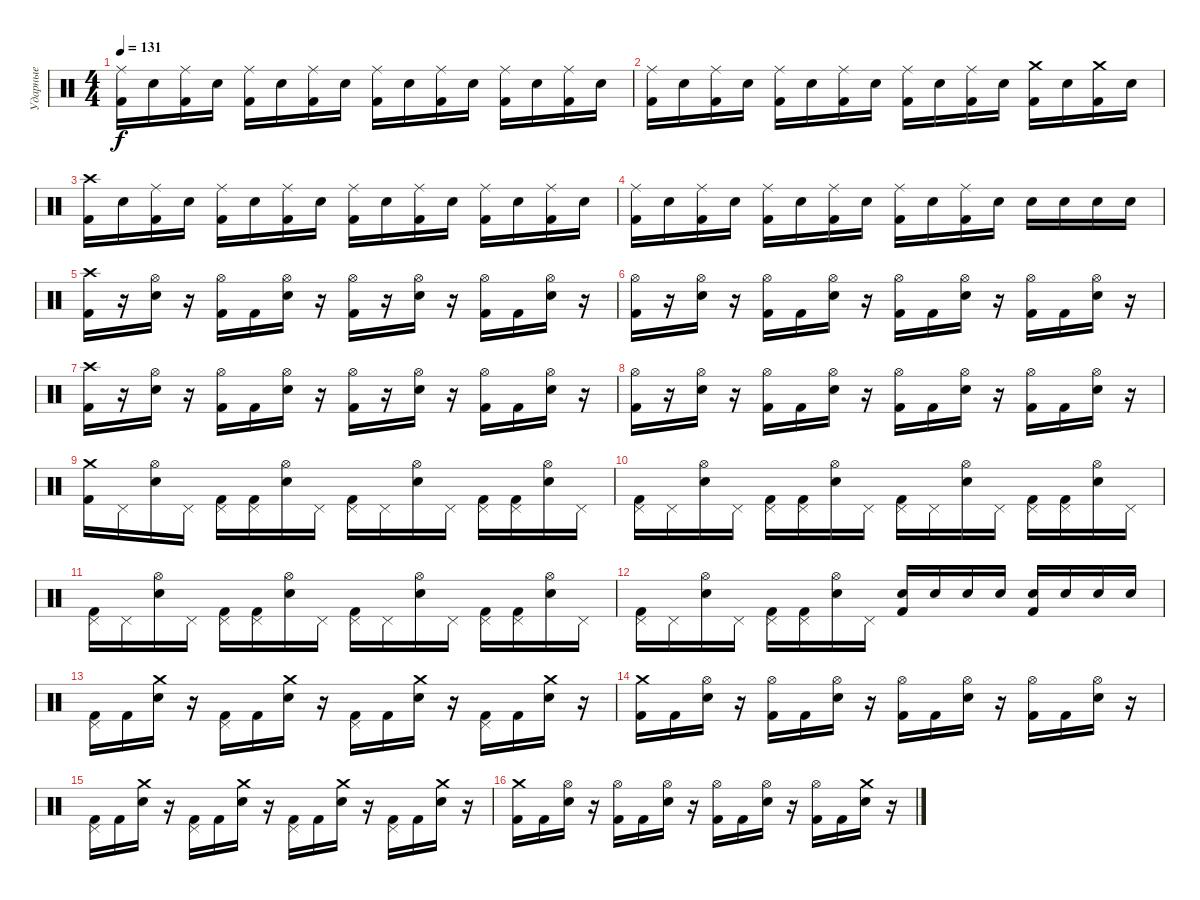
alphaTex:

\track ("Ударные" "Ударные") {instrument percussion}
\staff {score}
\articulation defaults
\ts (4 4)
\tempo 131
\clef neutral
\ks c
("Ride (middle)" "Kick (hit) 2").16{dy f} "Electric Snare (hit)".16 ("Ride (middle)" "Kick (hit) 2").16 "Electric Snare (hit)".16 ("Ride (middle)" "Kick (hit) 2").16 "Electric Snare (hit)".16 ("Ride (middle)" "Kick (hit) 2").16 "Electric Snare (hit)".16 ("Ride (middle)" "Kick (hit) 2").16 "Electric Snare (hit)".16 ("Ride (middle)" "Kick (hit) 2").16 "Electric Snare (hit)".16 ("Ride (middle)" "Kick (hit) 2").16 "Electric Snare (hit)".16 ("Ride (middle)" "Kick (hit) 2").16 "Electric Snare (hit)".16 |
("Ride (middle)" "Kick (hit) 2").16 "Electric Snare (hit)".16 ("Ride (middle)" "Kick (hit) 2").16 "Electric Snare (hit)".16 ("Ride (middle)" "Kick (hit) 2").16 "Electric Snare (hit)".16 ("Ride (middle)" "Kick (hit) 2").16 "Electric Snare (hit)".16 ("Ride (middle)" "Kick (hit) 2").16 "Electric Snare (hit)".16 ("Ride (middle)" "Kick (hit) 2").16 "Electric Snare (hit)".16 ("Crash medium (hit)" "Kick (hit) 2").16 "Electric Snare (hit)".16 ("Crash medium (hit)" "Kick (hit) 2").16 "Electric Snare (hit)".16 |
("Crash high (hit)" "Kick (hit) 2").16 "Electric Snare (hit)".16 ("Ride (middle)" "Kick (hit) 2").16 "Electric Snare (hit)".16 ("Ride (middle)" "Kick (hit) 2").16 "Electric Snare (hit)".16 ("Ride (middle)" "Kick (hit) 2").16 "Electric Snare (hit)".16 ("Ride (middle)" "Kick (hit) 2").16 "Electric Snare (hit)".16 ("Ride (middle)" "Kick (hit) 2").16 "Electric Snare (hit)".16 ("Ride (middle)" "Kick (hit) 2").16 "Electric Snare (hit)".16 ("Ride (middle)" "Kick (hit) 2").16 "Electric Snare (hit)".16 |
("Ride (middle)" "Kick (hit) 2").16 "Electric Snare (hit)".16 ("Ride (middle)" "Kick (hit) 2").16 "Electric Snare (hit)".16 ("Ride (middle)" "Kick (hit) 2").16 "Electric Snare (hit)".16 ("Ride (middle)" "Kick (hit) 2").16 "Electric Snare (hit)".16 ("Ride (middle)" "Kick (hit) 2").16 "Electric Snare (hit)".16 ("Ride (middle)" "Kick (hit) 2").16 "Electric Snare (hit)".16 "Electric Snare (hit)".16 "Electric Snare (hit)".16 "Electric Snare (hit)".16 "Electric Snare (hit)".16 |
("Crash high (hit)" "Kick (hit) 2").16 r.16 ("Hi-Hat (open)" "Electric Snare (hit)").16 r.16 ("Hi-Hat (open)" "Kick (hit) 2").16 "Kick (hit) 2".16 ("Hi-Hat (open)" "Electric Snare (hit)").16 r.16 ("Hi-Hat (open)" "Kick (hit) 2").16 r.16 ("Hi-Hat (open)" "Electric Snare (hit)").16 r.16 ("Hi-Hat (open)" "Kick (hit) 2").16 "Kick (hit) 2".16 ("Hi-Hat (open)" "Electric Snare (hit)").16 r.16 |
("Hi-Hat (open)" "Kick (hit) 2").16 r.16 ("Hi-Hat (open)" "Electric Snare (hit)").16 r.16 ("Hi-Hat (open)" "Kick (hit) 2").16 "Kick (hit) 2".16 ("Hi-Hat (open)" "Electric Snare (hit)").16 r.16 ("Hi-Hat (open)" "Kick (hit) 2").16 "Kick (hit) 2".16 ("Hi-Hat (open)" "Electric Snare (hit)").16 r.16 ("Hi-Hat (open)" "Kick (hit) 2").16 "Kick (hit) 2".16 ("Hi-Hat (open)" "Electric Snare (hit)").16 r.16 |
("Crash high (hit)" "Kick (hit) 2").16 r.16 ("Hi-Hat (open)" "Electric Snare (hit)").16 r.16 ("Hi-Hat (open)" "Kick (hit) 2").16 "Kick (hit) 2".16 ("Hi-Hat (open)" "Electric Snare (hit)").16 r.16 ("Hi-Hat (open)" "Kick (hit) 2").16 r.16 ("Hi-Hat (open)" "Electric Snare (hit)").16 r.16 ("Hi-Hat (open)" "Kick (hit) 2").16 "Kick (hit) 2".16 ("Hi-Hat (open)" "Electric Snare (hit)").16 r.16 |
("Hi-Hat (open)" "Kick (hit) 2").16 r.16 ("Hi-Hat (open)" "Electric Snare (hit)").16 r.16 ("Hi-Hat (open)" "Kick (hit) 2").16 "Kick (hit) 2".16 ("Hi-Hat (open)" "Electric Snare (hit)").16 r.16 ("Hi-Hat (open)" "Kick (hit) 2").16 "Kick (hit) 2".16 ("Hi-Hat (open)" "Electric Snare (hit)").16 r.16 ("Hi-Hat (open)" "Kick (hit) 2").16 "Kick (hit) 2".16 ("Hi-Hat (open)" "Electric Snare (hit)").16 r.16 |
("Crash medium (hit)" "Kick (hit) 2").16 "Pedal Hi-Hat (hit)".16 ("Hi-Hat (open)" "Electric Snare (hit)").16 "Pedal Hi-Hat (hit)".16 ("Pedal Hi-Hat (hit)" "Kick (hit) 2").16 ("Pedal Hi-Hat (hit)" "Kick (hit) 2").16 ("Hi-Hat (open)" "Electric Snare (hit)").16 "Pedal Hi-Hat (hit)".16 ("Pedal Hi-Hat (hit)" "Kick (hit) 2").16 "Pedal Hi-Hat (hit)".16 ("Hi-Hat (open)" "Electric Snare (hit)").16 "Pedal Hi-Hat (hit)".16 ("Pedal Hi-Hat (hit)" "Kick (hit) 2").16 ("Pedal Hi-Hat (hit)" "Kick (hit) 2").16 ("Hi-Hat (open)" "Electric Snare (hit)").16 "Pedal Hi-Hat (hit)".16 |
("Pedal Hi-Hat (hit)" "Kick (hit) 2").16 "Pedal Hi-Hat (hit)".16 ("Hi-Hat (open)" "Electric Snare (hit)").16 "Pedal Hi-Hat (hit)".16 ("Pedal Hi-Hat (hit)" "Kick (hit) 2").16 ("Pedal Hi-Hat (hit)" "Kick (hit) 2").16 ("Hi-Hat (open)" "Electric Snare (hit)").16 "Pedal Hi-Hat (hit)".16 ("Pedal Hi-Hat (hit)" "Kick (hit) 2").16 "Pedal Hi-Hat (hit)".16 ("Hi-Hat (open)" "Electric Snare (hit)").16 "Pedal Hi-Hat (hit)".16 ("Pedal Hi-Hat (hit)" "Kick (hit) 2").16 ("Pedal Hi-Hat (hit)" "Kick (hit) 2").16 ("Hi-Hat (open)" "Electric Snare (hit)").16 "Pedal Hi-Hat (hit)".16 |
("Pedal Hi-Hat (hit)" "Kick (hit) 2").16 "Pedal Hi-Hat (hit)".16 ("Hi-Hat (open)" "Electric Snare (hit)").16 "Pedal Hi-Hat (hit)".16 ("Pedal Hi-Hat (hit)" "Kick (hit) 2").16 ("Pedal Hi-Hat (hit)" "Kick (hit) 2").16 ("Hi-Hat (open)" "Electric Snare (hit)").16 "Pedal Hi-Hat (hit)".16 ("Pedal Hi-Hat (hit)" "Kick (hit) 2").16 "Pedal Hi-Hat (hit)".16 ("Hi-Hat (open)" "Electric Snare (hit)").16 "Pedal Hi-Hat (hit)".16 ("Pedal Hi-Hat (hit)" "Kick (hit) 2").16 ("Pedal Hi-Hat (hit)" "Kick (hit) 2").16 ("Hi-Hat (open)" "Electric Snare (hit)").16 "Pedal Hi-Hat (hit)".16 |
("Pedal Hi-Hat (hit)" "Kick (hit) 2").16 "Pedal Hi-Hat (hit)".16 ("Hi-Hat (open)" "Electric Snare (hit)").16 "Pedal Hi-Hat (hit)".16 ("Pedal Hi-Hat (hit)" "Kick (hit) 2").16 ("Pedal Hi-Hat (hit)" "Kick (hit) 2").16 ("Hi-Hat (open)" "Electric Snare (hit)").16 "Pedal Hi-Hat (hit)".16 ("Electric Snare (hit)" "Kick (hit) 2").16 "Electric Snare (hit)".16 "Electric Snare (hit)".16 "Electric Snare (hit)".16 ("Electric Snare (hit)" "Kick (hit) 2").16 "Electric Snare (hit)".16 "Electric Snare (hit)".16 "Electric Snare (hit)".16 |
("Pedal Hi-Hat (hit)" "Kick (hit) 2").16 "Kick (hit) 2".16 ("Crash medium (hit)" "Electric Snare (hit)").16 r.16 ("Pedal Hi-Hat (hit)" "Kick (hit) 2").16 "Kick (hit) 2".16 ("Crash medium (hit)" "Electric Snare (hit)").16 r.16 ("Pedal Hi-Hat (hit)" "Kick (hit) 2").16 "Kick (hit) 2".16 ("Crash medium (hit)" "Electric Snare (hit)").16 r.16 ("Pedal Hi-Hat (hit)" "Kick (hit) 2").16 "Kick (hit) 2".16 ("Crash medium (hit)" "Electric Snare (hit)").16 r.16 |
("Crash medium (hit)" "Kick (hit) 2").16 "Kick (hit) 2".16 ("Hi-Hat (open)" "Electric Snare (hit)").16 r.16 ("Hi-Hat (open)" "Kick (hit) 2").16 "Kick (hit) 2".16 ("Hi-Hat (open)" "Electric Snare (hit)").16 r.16 ("Hi-Hat (open)" "Kick (hit) 2").16 "Kick (hit) 2".16 ("Hi-Hat (open)" "Electric Snare (hit)").16 r.16 ("Hi-Hat (open)" "Kick (hit) 2").16 "Kick (hit) 2".16 ("Hi-Hat (open)" "Electric Snare (hit)").16 r.16 |
("Pedal Hi-Hat (hit)" "Kick (hit) 2").16 "Kick (hit) 2".16 ("Crash medium (hit)" "Electric Snare (hit)").16 r.16 ("Pedal Hi-Hat (hit)" "Kick (hit) 2").16 "Kick (hit) 2".16 ("Crash medium (hit)" "Electric Snare (hit)").16 r.16 ("Pedal Hi-Hat (hit)" "Kick (hit) 2").16 "Kick (hit) 2".16 ("Crash medium (hit)" "Electric Snare (hit)").16 r.16 ("Pedal Hi-Hat (hit)" "Kick (hit) 2").16 "Kick (hit) 2".16 ("Crash medium (hit)" "Electric Snare (hit)").16 r.16 |
("Crash medium (hit)" "Kick (hit) 2").16 "Kick (hit) 2".16 ("Hi-Hat (open)" "Electric Snare (hit)").16 r.16 ("Hi-Hat (open)" "Kick (hit) 2").16 "Kick (hit) 2".16 ("Hi-Hat (open)" "Electric Snare (hit)").16 r.16 ("Hi-Hat (open)" "Kick (hit) 2").16 "Kick (hit) 2".16 ("Hi-Hat (open)" "Electric Snare (hit)").16 r.16 ("Hi-Hat (open)" "Kick (hit) 2").16 "Kick (hit) 2".16 ("Crash medium (hit)" "Electric Snare (hit)").16 r.16
